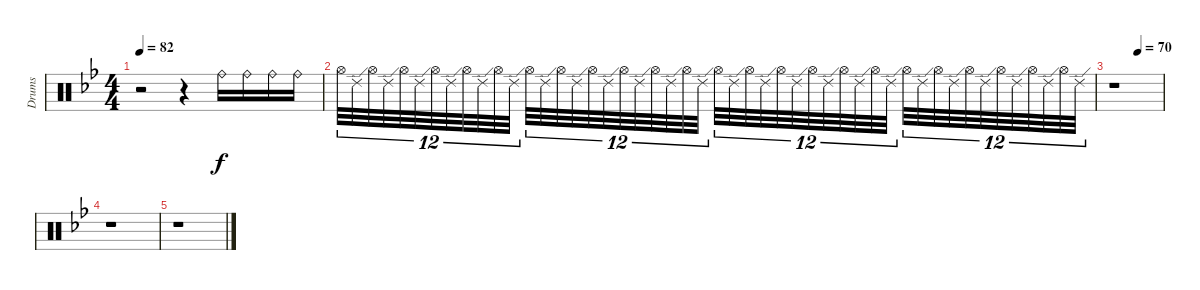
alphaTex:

\track ("Drums" "Drums") {instrument percussion}
\staff {score}
\articulation defaults
\ts (4 4)
\tempo 82
\clef neutral
\ks bb
r.2{dy f} r.4 "Ride (bell)".16 "Ride (bell)".16 "Ride (bell)".16 "Ride (bell)".16 |
"Hi-Hat (open)".32{tu (12 8)} "Ride (edge) 2".32{tu (12 8)} "Hi-Hat (open)".32{tu (12 8)} "Ride (edge) 2".32{tu (12 8)} "Hi-Hat (open)".32{tu (12 8)} "Ride (edge) 2".32{tu (12 8)} "Hi-Hat (open)".32{tu (12 8)} "Ride (edge) 2".32{tu (12 8)} "Hi-Hat (open)".32{tu (12 8)} "Ride (edge) 2".32{tu (12 8)} "Hi-Hat (open)".32{tu (12 8)} "Ride (edge) 2".32{tu (12 8)} "Hi-Hat (open)".32{tu (12 8)} "Ride (edge) 2".32{tu (12 8)} "Hi-Hat (open)".32{tu (12 8)} "Ride (edge) 2".32{tu (12 8)} "Hi-Hat (open)".32{tu (12 8)} "Ride (edge) 2".32{tu (12 8)} "Hi-Hat (open)".32{tu (12 8)} "Ride (edge) 2".32{tu (12 8)} "Hi-Hat (open)".32{tu (12 8)} "Ride (edge) 2".32{tu (12 8)} "Hi-Hat (open)".32{tu (12 8)} "Ride (edge) 2".32{tu (12 8)} "Hi-Hat (open)".32{tu (12 8)} "Ride (edge) 2".32{tu (12 8)} "Hi-Hat (open)".32{tu (12 8)} "Ride (edge) 2".32{tu (12 8)} "Hi-Hat (open)".32{tu (12 8)} "Ride (edge) 2".32{tu (12 8)} "Hi-Hat (open)".32{tu (12 8)} "Ride (edge) 2".32{tu (12 8)} "Hi-Hat (open)".32{tu (12 8)} "Ride (edge) 2".32{tu (12 8)} "Hi-Hat (open)".32{tu (12 8)} "Ride (edge) 2".32{tu (12 8)} "Hi-Hat (open)".32{tu (12 8)} "Ride (edge) 2".32{tu (12 8)} "Hi-Hat (open)".32{tu (12 8)} "Ride (edge) 2".32{tu (12 8)} "Hi-Hat (open)".32{tu (12 8)} "Ride (edge) 2".32{tu (12 8)} "Hi-Hat (open)".32{tu (12 8)} "Ride (edge) 2".32{tu (12 8)} "Hi-Hat (open)".32{tu (12 8)} "Ride (edge) 2".32{tu (12 8)} "Hi-Hat (open)".32{tu (12 8)} "Ride (edge) 2".32{tu (12 8)} |
\tempo (70 0.5)
r.1 |
r.1 |
r.1
